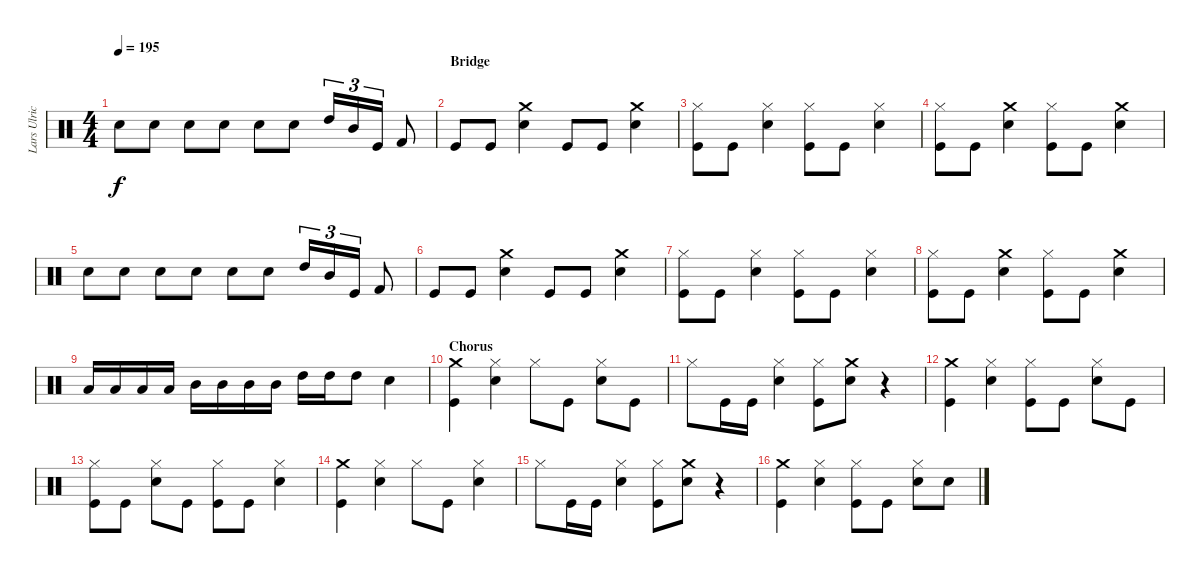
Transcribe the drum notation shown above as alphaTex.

\track ("Lars Ulrich (Drums)" "Lars Ulric") {instrument percussion}
\staff {score}
\articulation defaults
\ts (4 4)
\tempo 195
\clef neutral
\ks c "Snare (hit) 2".8{dy f} "Snare (hit) 2".8 "Snare (hit) 2".8 "Snare (hit) 2".8 "Snare (hit) 2".8 "Snare (hit) 2".8 "High Tom (hit)".16{tu (3 2)} "Mid Tom (hit)".16{tu (3 2)} "Kick (hit)".16{tu (3 2)} "Kick (hit) 2".8
|
\section ("" "Bridge")
"Kick (hit)".8 "Kick (hit)".8 ("Crash medium (hit)" "Snare (hit) 2").4 "Kick (hit)".8 "Kick (hit)".8 ("Crash medium (hit)" "Snare (hit) 2").4 |
("Kick (hit)" "Hi-Hat (closed)").8 "Kick (hit)".8 ("Snare (hit) 2" "Hi-Hat (closed)").4 ("Kick (hit)" "Hi-Hat (closed)").8 "Kick (hit)".8 ("Snare (hit) 2" "Hi-Hat (closed)").4 |
("Kick (hit)" "Hi-Hat (closed)").8 "Kick (hit)".8 ("Snare (hit) 2" "Crash medium (hit)").4 ("Kick (hit)" "Hi-Hat (closed)").8 "Kick (hit)".8 ("Crash medium (hit)" "Snare (hit) 2").4 |
"Snare (hit) 2".8 "Snare (hit) 2".8 "Snare (hit) 2".8 "Snare (hit) 2".8 "Snare (hit) 2".8 "Snare (hit) 2".8 "High Tom (hit)".16{tu (3 2)} "Mid Tom (hit)".16{tu (3 2)} "Kick (hit)".16{tu (3 2)} "Kick (hit) 2".8 |
"Kick (hit)".8 "Kick (hit)".8 ("Crash medium (hit)" "Snare (hit) 2").4 "Kick (hit)".8 "Kick (hit)".8 ("Crash medium (hit)" "Snare (hit) 2").4 |
("Kick (hit)" "Hi-Hat (closed)").8 "Kick (hit)".8 ("Snare (hit) 2" "Hi-Hat (closed)").4 ("Kick (hit)" "Hi-Hat (closed)").8 "Kick (hit)".8 ("Snare (hit) 2" "Hi-Hat (closed)").4 |
("Kick (hit)" "Hi-Hat (closed)").8 "Kick (hit)".8 ("Snare (hit) 2" "Crash medium (hit)").4 ("Kick (hit)" "Hi-Hat (closed)").8 "Kick (hit)".8 ("Crash medium (hit)" "Snare (hit) 2").4 |
"Low Tom (hit)".16 "Low Tom (hit)".16 "Low Tom (hit)".16 "Low Tom (hit)".16 "Mid Tom (hit)".16 "Mid Tom (hit)".16 "Mid Tom (hit)".16 "Mid Tom (hit)".16 "High Tom (hit)".16 "High Tom (hit)".16 "High Tom (hit)".8 "Snare (hit) 2".4 |
\section ("" "Chorus")
("Kick (hit)" "Crash medium (hit)").4 ("Hi-Hat (closed)" "Snare (hit) 2").4 "Hi-Hat (closed)".8 "Kick (hit)".8 ("Snare (hit) 2" "Hi-Hat (closed)").8 "Kick (hit)".8 |
"Hi-Hat (closed)".8 "Kick (hit)".16 "Kick (hit)".16 ("Snare (hit) 2" "Hi-Hat (closed)").4 ("Hi-Hat (closed)" "Kick (hit)").8 ("Crash medium (hit)" "Snare (hit) 2").8 r.4 |
("Kick (hit)" "Crash medium (hit)").4 ("Hi-Hat (closed)" "Snare (hit) 2").4 ("Hi-Hat (closed)" "Kick (hit)").8 "Kick (hit)".8 ("Snare (hit) 2" "Hi-Hat (closed)").8 "Kick (hit)".8 |
("Hi-Hat (closed)" "Kick (hit)").8 "Kick (hit)".8 ("Snare (hit) 2" "Hi-Hat (closed)").8 "Kick (hit)".8 ("Hi-Hat (closed)" "Kick (hit)").8 "Kick (hit)".8 ("Snare (hit) 2" "Hi-Hat (closed)").4 |
("Kick (hit)" "Crash medium (hit)").4 ("Hi-Hat (closed)" "Snare (hit) 2").4 "Hi-Hat (closed)".8 "Kick (hit)".8 ("Snare (hit) 2" "Hi-Hat (closed)").4 |
"Hi-Hat (closed)".8 "Kick (hit)".16 "Kick (hit)".16 ("Snare (hit) 2" "Hi-Hat (closed)").4 ("Hi-Hat (closed)" "Kick (hit)").8 ("Crash medium (hit)" "Snare (hit) 2").8 r.4 |
("Crash medium (hit)" "Kick (hit)").4 ("Snare (hit) 2" "Hi-Hat (closed)").4 ("Hi-Hat (closed)" "Kick (hit)").8 "Kick (hit)".8 ("Hi-Hat (closed)" "Snare (hit) 2").8 "Snare (hit) 2".8
